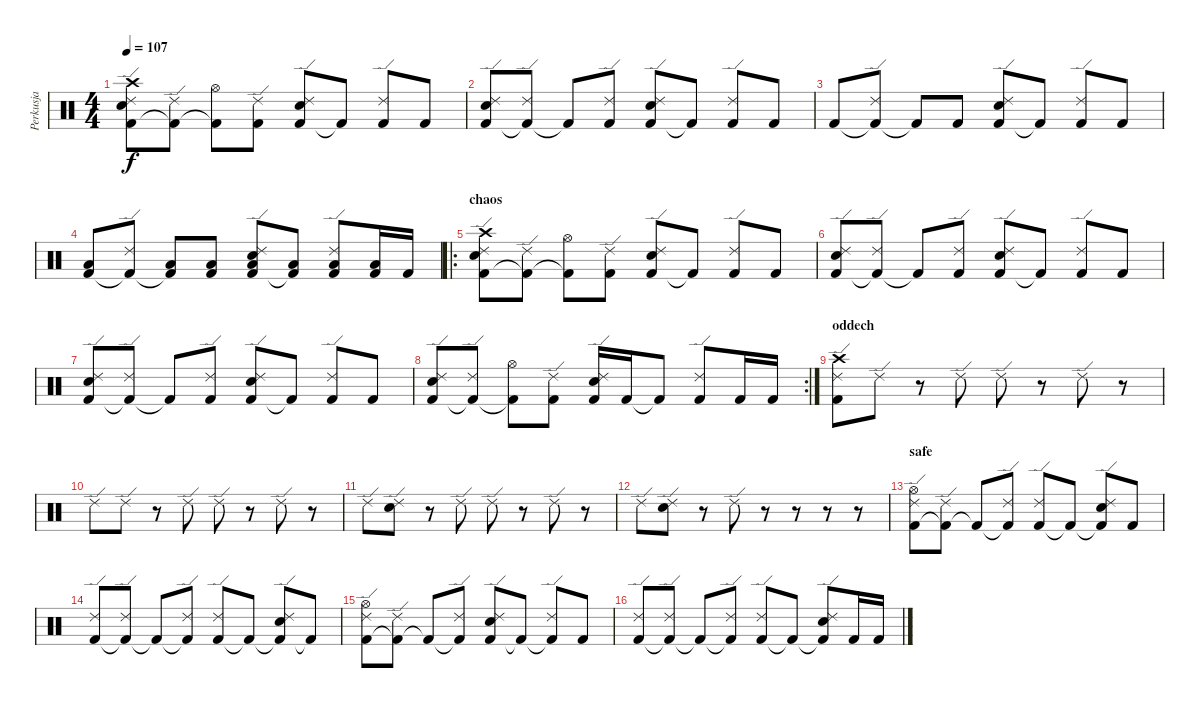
\track ("Perkusja" "Perkusja") {instrument percussion}
\staff {score}
\articulation defaults
\ts (4 4)
\tempo 107
\clef neutral
\ks c
("Kick (hit) 2" "Snare (hit) 2" "Ride (edge) 2" "Crash high (hit)").8{dy f} ("Kick (hit) 2"{t} "Ride (edge) 2").8 ("Kick (hit) 2"{t} "Hi-Hat (open)").8 ("Kick (hit) 2" "Ride (edge) 2").8 ("Kick (hit) 2" "Snare (hit) 2" "Ride (edge) 2").8 "Kick (hit) 2"{t}.8 ("Kick (hit) 2" "Ride (edge) 2").8 "Kick (hit) 2".8 |
("Kick (hit) 2" "Snare (hit) 2" "Ride (edge) 2").8 ("Kick (hit) 2"{t} "Ride (edge) 2").8 "Kick (hit) 2"{t}.8 ("Kick (hit) 2" "Ride (edge) 2").8 ("Kick (hit) 2" "Snare (hit) 2" "Ride (edge) 2").8 "Kick (hit) 2"{t}.8 ("Kick (hit) 2" "Ride (edge) 2").8 "Kick (hit) 2".8 |
"Kick (hit) 2".8 ("Kick (hit) 2"{t} "Ride (edge) 2").8 "Kick (hit) 2"{t}.8 "Kick (hit) 2".8 ("Kick (hit) 2" "Snare (hit) 2" "Ride (edge) 2").8 "Kick (hit) 2"{t}.8 ("Kick (hit) 2" "Ride (edge) 2").8 "Kick (hit) 2".8 |
("Kick (hit) 2" "Low Tom (hit)").8 ("Kick (hit) 2"{t} "Ride (edge) 2").8 ("Kick (hit) 2"{t} "Low Tom (hit)").8 ("Kick (hit) 2" "Low Tom (hit)").8 ("Kick (hit) 2" "Snare (hit) 2" "Ride (edge) 2" "Low Tom (hit)").8 ("Kick (hit) 2"{t} "Low Tom (hit)").8 ("Kick (hit) 2" "Ride (edge) 2" "Low Tom (hit)").8 ("Kick (hit) 2" "Low Tom (hit)").16 "Kick (hit) 2".16 |
\ro
\section ("" "chaos")
("Kick (hit) 2" "Snare (hit) 2" "Ride (edge) 2" "Crash high (hit)").8 ("Kick (hit) 2"{t} "Ride (edge) 2").8 ("Kick (hit) 2"{t} "Hi-Hat (open)").8 ("Kick (hit) 2" "Ride (edge) 2").8 ("Kick (hit) 2" "Snare (hit) 2" "Ride (edge) 2").8 "Kick (hit) 2"{t}.8 ("Kick (hit) 2" "Ride (edge) 2").8 "Kick (hit) 2".8 |
("Kick (hit) 2" "Snare (hit) 2" "Ride (edge) 2").8 ("Kick (hit) 2"{t} "Ride (edge) 2").8 "Kick (hit) 2"{t}.8 ("Kick (hit) 2" "Ride (edge) 2").8 ("Kick (hit) 2" "Snare (hit) 2" "Ride (edge) 2").8 "Kick (hit) 2"{t}.8 ("Kick (hit) 2" "Ride (edge) 2").8 "Kick (hit) 2".8 |
("Kick (hit) 2" "Snare (hit) 2" "Ride (edge) 2").8 ("Kick (hit) 2"{t} "Ride (edge) 2").8 "Kick (hit) 2"{t}.8 ("Kick (hit) 2" "Ride (edge) 2").8 ("Kick (hit) 2" "Snare (hit) 2" "Ride (edge) 2").8 "Kick (hit) 2"{t}.8 ("Kick (hit) 2" "Ride (edge) 2").8 "Kick (hit) 2".8 |
\rc 2
("Kick (hit) 2" "Snare (hit) 2" "Ride (edge) 2").8 ("Kick (hit) 2"{t} "Ride (edge) 2").8 ("Kick (hit) 2"{t} "Hi-Hat (open)").8 ("Kick (hit) 2" "Ride (edge) 2").8 ("Kick (hit) 2" "Snare (hit) 2" "Ride (edge) 2").16 "Kick (hit) 2".16 "Kick (hit) 2"{t}.8 ("Kick (hit) 2" "Ride (edge) 2").8 "Kick (hit) 2".16 "Kick (hit) 2".16 |
\section ("" "oddech")
("Kick (hit) 2" "Ride (edge) 2" "Crash high (hit)").8 "Ride (edge) 2".8 r.8 "Ride (edge) 2".8 "Ride (edge) 2".8 r.8 "Ride (edge) 2".8 r.8 |
"Ride (edge) 2".8 "Ride (edge) 2".8 r.8 "Ride (edge) 2".8 "Ride (edge) 2".8 r.8 "Ride (edge) 2".8 r.8 |
"Ride (edge) 2".8 ("Snare (hit) 2" "Ride (edge) 2").8 r.8 "Ride (edge) 2".8 "Ride (edge) 2".8 r.8 "Ride (edge) 2".8 r.8 |
"Ride (edge) 2".8 ("Snare (hit) 2" "Ride (edge) 2").8 r.8 "Ride (edge) 2".8 r.8 r.8 r.8 r.8 |
\section ("" "safe")
("Kick (hit) 2" "Hi-Hat (open)" "Ride (edge) 2").8 ("Kick (hit) 2"{t} "Ride (edge) 2").8 "Kick (hit) 2"{t}.8 ("Kick (hit) 2"{t} "Ride (edge) 2").8 ("Kick (hit) 2" "Ride (edge) 2").8 "Kick (hit) 2"{t}.8 ("Kick (hit) 2"{t} "Snare (hit) 2" "Ride (edge) 2").8 "Kick (hit) 2".8 |
("Kick (hit) 2" "Ride (edge) 2").8 ("Kick (hit) 2"{t} "Ride (edge) 2").8 "Kick (hit) 2"{t}.8 ("Kick (hit) 2"{t} "Ride (edge) 2").8 ("Kick (hit) 2" "Ride (edge) 2").8 "Kick (hit) 2"{t}.8 ("Kick (hit) 2"{t} "Snare (hit) 2" "Ride (edge) 2").8 "Kick (hit) 2"{t}.8 |
("Kick (hit) 2" "Ride (edge) 2" "Hi-Hat (open)").8 ("Kick (hit) 2"{t} "Ride (edge) 2").8 "Kick (hit) 2"{t}.8 ("Kick (hit) 2"{t} "Ride (edge) 2").8 ("Kick (hit) 2" "Snare (hit) 2" "Ride (edge) 2").8 "Kick (hit) 2"{t}.8 ("Kick (hit) 2"{t} "Ride (edge) 2").8 "Kick (hit) 2".8 |
("Kick (hit) 2" "Ride (edge) 2").8 ("Kick (hit) 2"{t} "Ride (edge) 2").8 "Kick (hit) 2"{t}.8 ("Kick (hit) 2"{t} "Ride (edge) 2").8 ("Kick (hit) 2" "Ride (edge) 2").8 "Kick (hit) 2"{t}.8 ("Kick (hit) 2"{t} "Snare (hit) 2" "Ride (edge) 2").8 "Kick (hit) 2".16 "Kick (hit) 2".16
